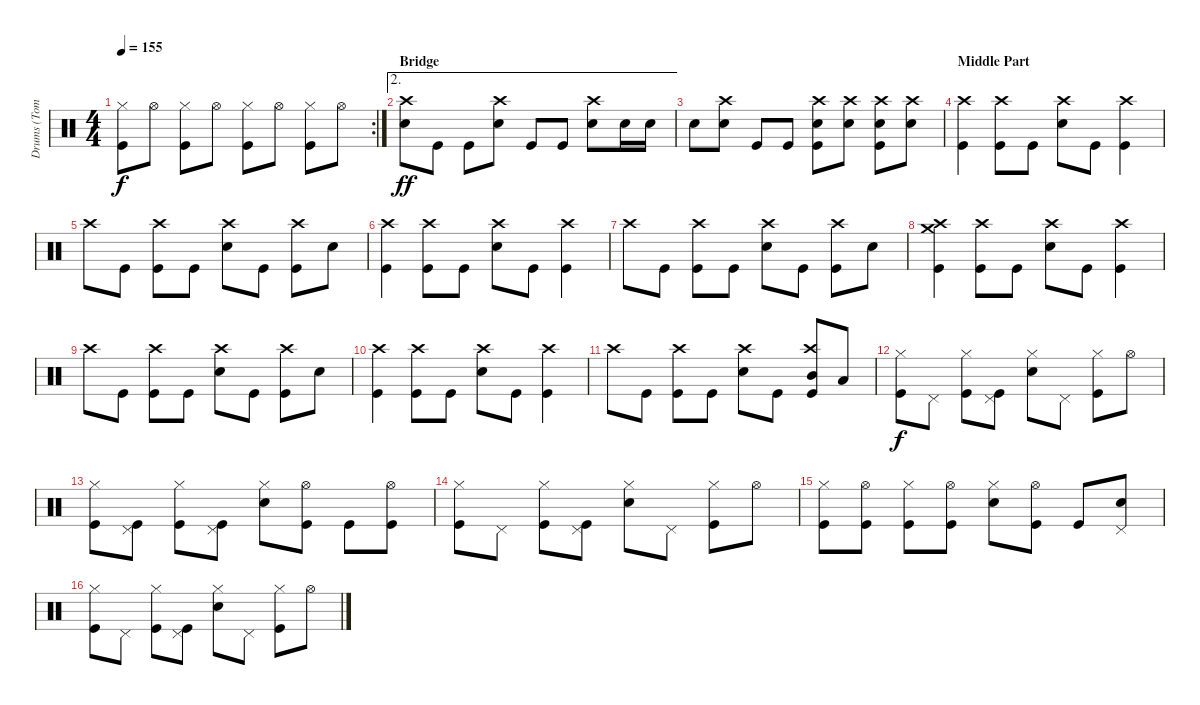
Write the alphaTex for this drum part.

\track ("Drums (Tommy Decker)" "Drums (Tom") {instrument percussion}
\staff {score}
\articulation defaults
\rc 2
\ts (4 4)
\tempo 155
\clef neutral
\ks c
("Hi-Hat (closed)" "Kick (hit)").8{dy f} "Hi-Hat (open)".8 ("Hi-Hat (closed)" "Kick (hit)").8 "Hi-Hat (open)".8 ("Hi-Hat (closed)" "Kick (hit)").8 "Hi-Hat (open)".8 ("Hi-Hat (closed)" "Kick (hit)").8 "Hi-Hat (open)".8 |
\ae 2
\section ("" "Bridge")
("Crash high (hit)" "Snare (hit) 2").8{dy ff} "Kick (hit)".8 "Kick (hit)".8 ("Crash high (hit)" "Snare (hit) 2").8 "Kick (hit)".8 "Kick (hit)".8 ("Crash high (hit)" "Snare (hit) 2").8 "Snare (hit) 2".16 "Snare (hit) 2".16 |
"Snare (hit) 2".8 ("Crash high (hit)" "Snare (hit) 2").8 "Kick (hit)".8 "Kick (hit)".8 ("Crash high (hit)" "Snare (hit) 2" "Kick (hit)").8 ("Crash high (hit)" "Snare (hit) 2").8 ("Crash high (hit)" "Snare (hit) 2" "Kick (hit)").8 ("Crash high (hit)" "Snare (hit) 2").8 |
\section ("" "Middle Part")
("Crash high (hit)" "Kick (hit)").4 ("Crash high (hit)" "Kick (hit)").8 "Kick (hit)".8 ("Crash high (hit)" "Snare (hit) 2").8 "Kick (hit)".8 ("Crash high (hit)" "Kick (hit)").4 |
"Crash high (hit)".8 "Kick (hit)".8 ("Crash high (hit)" "Kick (hit)").8 "Kick (hit)".8 ("Crash high (hit)" "Snare (hit) 2").8 "Kick (hit)".8 ("Crash high (hit)" "Kick (hit)").8 "Snare (hit) 2".8 |
("Crash high (hit)" "Kick (hit)").4 ("Crash high (hit)" "Kick (hit)").8 "Kick (hit)".8 ("Crash high (hit)" "Snare (hit) 2").8 "Kick (hit)".8 ("Crash high (hit)" "Kick (hit)").4 |
"Crash high (hit)".8 "Kick (hit)".8 ("Crash high (hit)" "Kick (hit)").8 "Kick (hit)".8 ("Crash high (hit)" "Snare (hit) 2").8 "Kick (hit)".8 ("Crash high (hit)" "Kick (hit)").8 "Snare (hit) 2".8 |
("Crash high (hit)" "Crash medium (hit)" "Kick (hit)").4 ("Crash high (hit)" "Kick (hit)").8 "Kick (hit)".8 ("Crash high (hit)" "Snare (hit) 2").8 "Kick (hit)".8 ("Crash high (hit)" "Kick (hit)").4 |
"Crash high (hit)".8 "Kick (hit)".8 ("Crash high (hit)" "Kick (hit)").8 "Kick (hit)".8 ("Crash high (hit)" "Snare (hit) 2").8 "Kick (hit)".8 ("Crash high (hit)" "Kick (hit)").8 "Snare (hit) 2".8 |
("Crash high (hit)" "Kick (hit)").4 ("Crash high (hit)" "Kick (hit)").8 "Kick (hit)".8 ("Crash high (hit)" "Snare (hit) 2").8 "Kick (hit)".8 ("Crash high (hit)" "Kick (hit)").4 |
"Crash high (hit)".8 "Kick (hit)".8 ("Crash high (hit)" "Kick (hit)").8 "Kick (hit)".8 ("Crash high (hit)" "Snare (hit) 2").8 "Kick (hit)".8 ("Crash high (hit)" "Mid Tom (hit)" "Kick (hit)").8 "Low Tom (hit)".8 |
("Hi-Hat (closed)" "Kick (hit)").8{dy f} "Pedal Hi-Hat (hit)".8 ("Hi-Hat (closed)" "Kick (hit)").8 ("Pedal Hi-Hat (hit)" "Kick (hit)").8 ("Hi-Hat (closed)" "Snare (hit) 2").8 "Pedal Hi-Hat (hit)".8 ("Hi-Hat (closed)" "Kick (hit)").8 "Hi-Hat (open)".8 |
("Hi-Hat (closed)" "Kick (hit)").8 ("Pedal Hi-Hat (hit)" "Kick (hit)").8 ("Hi-Hat (closed)" "Kick (hit)").8 ("Pedal Hi-Hat (hit)" "Kick (hit)").8 ("Hi-Hat (closed)" "Snare (hit) 2").8 ("Hi-Hat (open)" "Kick (hit)").8 "Kick (hit)".8 ("Hi-Hat (open)" "Kick (hit)").8 |
("Hi-Hat (closed)" "Kick (hit)").8 "Pedal Hi-Hat (hit)".8 ("Hi-Hat (closed)" "Kick (hit)").8 ("Pedal Hi-Hat (hit)" "Kick (hit)").8 ("Hi-Hat (closed)" "Snare (hit) 2").8 "Pedal Hi-Hat (hit)".8 ("Hi-Hat (closed)" "Kick (hit)").8 "Hi-Hat (open)".8 |
("Hi-Hat (closed)" "Kick (hit)").8 ("Hi-Hat (open)" "Kick (hit)").8 ("Hi-Hat (closed)" "Kick (hit)").8 ("Hi-Hat (open)" "Kick (hit)").8 ("Hi-Hat (closed)" "Snare (hit) 2").8 ("Hi-Hat (open)" "Kick (hit)").8 "Kick (hit)".8 ("Pedal Hi-Hat (hit)" "Snare (hit) 2").8 |
("Hi-Hat (closed)" "Kick (hit)").8 "Pedal Hi-Hat (hit)".8 ("Hi-Hat (closed)" "Kick (hit)").8 ("Pedal Hi-Hat (hit)" "Kick (hit)").8 ("Hi-Hat (closed)" "Snare (hit) 2").8 "Pedal Hi-Hat (hit)".8 ("Hi-Hat (closed)" "Kick (hit)").8 "Hi-Hat (open)".8
